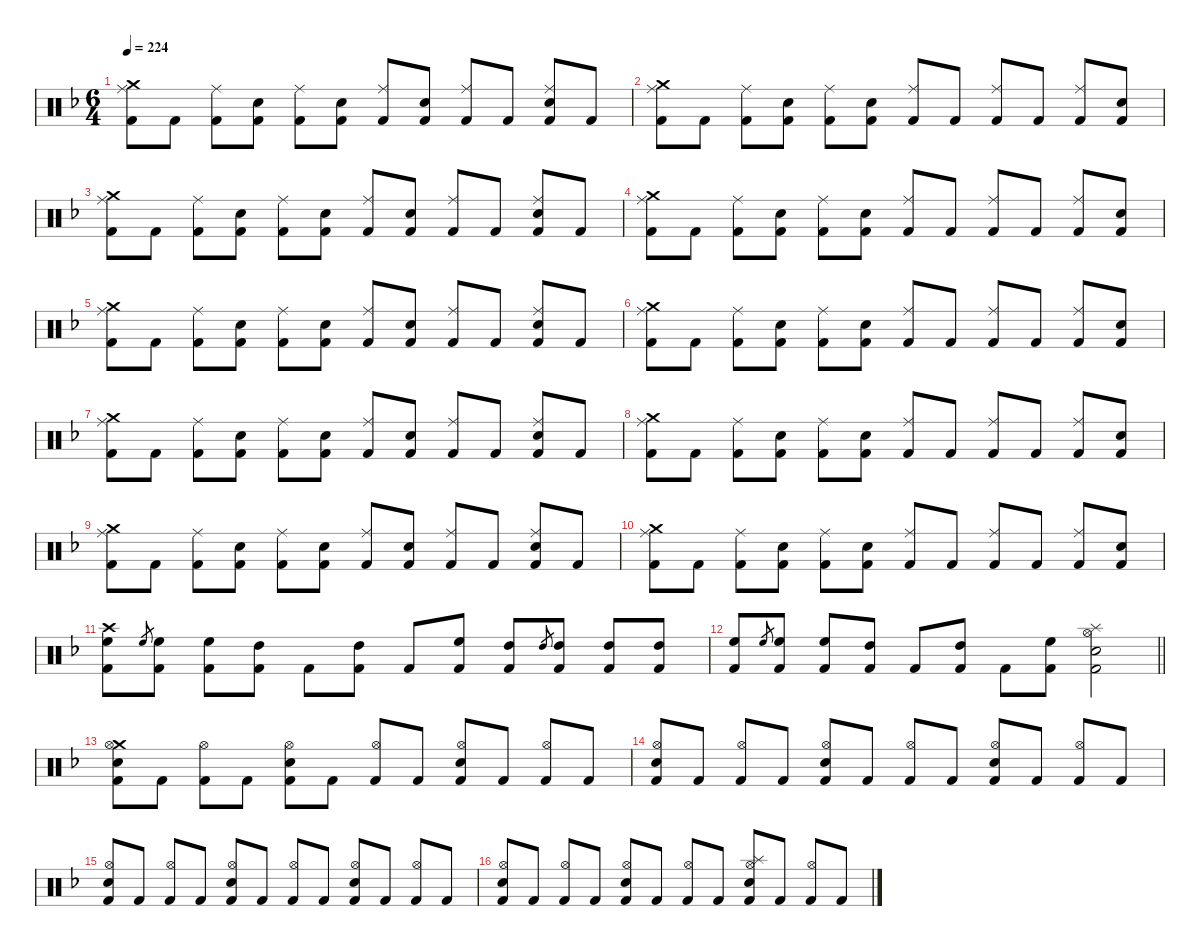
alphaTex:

\hideDynamics
\bracketExtendMode nobrackets
\singleTrackTrackNamePolicy hidden
\multiTrackTrackNamePolicy hidden
\firstSystemTrackNameMode fullname
\firstSystemTrackNameOrientation horizontal
\otherSystemsTrackNameOrientation horizontal
\track ("Drumkit" "Drums") {defaultSystemsLayout 4 instrument percussion}
\staff {score}
\articulation defaults
\ts (6 4)
\tempo 224
\clef neutral
\ks dminor
("Ride (middle)"{acc forcenatural} "Crash medium (hit)"{acc forcenatural} "Kick (hit) 2"{acc forcenatural}).8{dy mf beam Down} "Kick (hit) 2"{acc forcenatural}.8{dy f beam Down} ("Ride (middle)"{acc forcenatural} "Kick (hit) 2"{acc forcenatural}).8{dy mf beam Down} ("Snare (hit) 2"{acc forcenatural} "Kick (hit) 2"{acc forcenatural}).8{dy f beam Down} ("Ride (middle)"{acc forcenatural} "Kick (hit) 2"{acc forcenatural}).8{dy mf beam Down} ("Snare (hit) 2"{acc forcenatural} "Kick (hit) 2"{acc forcenatural}).8{dy f beam Down} ("Ride (middle)"{acc forcenatural} "Kick (hit) 2"{acc forcenatural}).8{dy mf beam Up} ("Snare (hit) 2"{acc forcenatural} "Kick (hit) 2"{acc forcenatural}).8{dy f beam Up} ("Ride (middle)"{acc forcenatural} "Kick (hit) 2"{acc forcenatural}).8{dy mf beam Up} "Kick (hit) 2"{acc forcenatural}.8{dy f beam Up} ("Ride (middle)"{acc forcenatural} "Snare (hit) 2"{acc forcenatural} "Kick (hit) 2"{acc forcenatural}).8{dy mf beam Up} "Kick (hit) 2"{acc forcenatural}.8{dy f beam Up} |
("Ride (middle)"{acc forcenatural} "Crash medium (hit)"{acc forcenatural} "Kick (hit) 2"{acc forcenatural}).8{dy mf beam Down} "Kick (hit) 2"{acc forcenatural}.8{dy f beam Down} ("Ride (middle)"{acc forcenatural} "Kick (hit) 2"{acc forcenatural}).8{dy mf beam Down} ("Snare (hit) 2"{acc forcenatural} "Kick (hit) 2"{acc forcenatural}).8{dy f beam Down} ("Ride (middle)"{acc forcenatural} "Kick (hit) 2"{acc forcenatural}).8{dy mf beam Down} ("Snare (hit) 2"{acc forcenatural} "Kick (hit) 2"{acc forcenatural}).8{dy f beam Down} ("Ride (middle)"{acc forcenatural} "Kick (hit) 2"{acc forcenatural}).8{dy mf beam Up} "Kick (hit) 2"{acc forcenatural}.8{dy f beam Up} ("Ride (middle)"{acc forcenatural} "Kick (hit) 2"{acc forcenatural}).8{dy mf beam Up} "Kick (hit) 2"{acc forcenatural}.8{dy f beam Up} ("Ride (middle)"{acc forcenatural} "Kick (hit) 2"{acc forcenatural}).8{dy mf beam Up} ("Snare (hit) 2"{acc forcenatural} "Kick (hit) 2"{acc forcenatural}).8{dy f beam Up} |
("Ride (middle)"{acc forcenatural} "Crash medium (hit)"{acc forcenatural} "Kick (hit) 2"{acc forcenatural}).8{dy mf beam Down} "Kick (hit) 2"{acc forcenatural}.8{dy f beam Down} ("Ride (middle)"{acc forcenatural} "Kick (hit) 2"{acc forcenatural}).8{dy mf beam Down} ("Snare (hit) 2"{acc forcenatural} "Kick (hit) 2"{acc forcenatural}).8{dy f beam Down} ("Ride (middle)"{acc forcenatural} "Kick (hit) 2"{acc forcenatural}).8{dy mf beam Down} ("Snare (hit) 2"{acc forcenatural} "Kick (hit) 2"{acc forcenatural}).8{dy f beam Down} ("Ride (middle)"{acc forcenatural} "Kick (hit) 2"{acc forcenatural}).8{dy mf beam Up} ("Snare (hit) 2"{acc forcenatural} "Kick (hit) 2"{acc forcenatural}).8{dy f beam Up} ("Ride (middle)"{acc forcenatural} "Kick (hit) 2"{acc forcenatural}).8{dy mf beam Up} "Kick (hit) 2"{acc forcenatural}.8{dy f beam Up} ("Ride (middle)"{acc forcenatural} "Snare (hit) 2"{acc forcenatural} "Kick (hit) 2"{acc forcenatural}).8{dy mf beam Up} "Kick (hit) 2"{acc forcenatural}.8{dy f beam Up} |
("Ride (middle)"{acc forcenatural} "Crash medium (hit)"{acc forcenatural} "Kick (hit) 2"{acc forcenatural}).8{dy mf beam Down} "Kick (hit) 2"{acc forcenatural}.8{dy f beam Down} ("Ride (middle)"{acc forcenatural} "Kick (hit) 2"{acc forcenatural}).8{dy mf beam Down} ("Snare (hit) 2"{acc forcenatural} "Kick (hit) 2"{acc forcenatural}).8{dy f beam Down} ("Ride (middle)"{acc forcenatural} "Kick (hit) 2"{acc forcenatural}).8{dy mf beam Down} ("Snare (hit) 2"{acc forcenatural} "Kick (hit) 2"{acc forcenatural}).8{dy f beam Down} ("Ride (middle)"{acc forcenatural} "Kick (hit) 2"{acc forcenatural}).8{dy mf beam Up} "Kick (hit) 2"{acc forcenatural}.8{dy f beam Up} ("Ride (middle)"{acc forcenatural} "Kick (hit) 2"{acc forcenatural}).8{dy mf beam Up} "Kick (hit) 2"{acc forcenatural}.8{dy f beam Up} ("Ride (middle)"{acc forcenatural} "Kick (hit) 2"{acc forcenatural}).8{dy mf beam Up} ("Snare (hit) 2"{acc forcenatural} "Kick (hit) 2"{acc forcenatural}).8{dy f beam Up} |
("Ride (middle)"{acc forcenatural} "Crash medium (hit)"{acc forcenatural} "Kick (hit) 2"{acc forcenatural}).8{dy mf beam Down} "Kick (hit) 2"{acc forcenatural}.8{dy f beam Down} ("Ride (middle)"{acc forcenatural} "Kick (hit) 2"{acc forcenatural}).8{dy mf beam Down} ("Snare (hit) 2"{acc forcenatural} "Kick (hit) 2"{acc forcenatural}).8{dy f beam Down} ("Ride (middle)"{acc forcenatural} "Kick (hit) 2"{acc forcenatural}).8{dy mf beam Down} ("Snare (hit) 2"{acc forcenatural} "Kick (hit) 2"{acc forcenatural}).8{dy f beam Down} ("Ride (middle)"{acc forcenatural} "Kick (hit) 2"{acc forcenatural}).8{dy mf beam Up} ("Snare (hit) 2"{acc forcenatural} "Kick (hit) 2"{acc forcenatural}).8{dy f beam Up} ("Ride (middle)"{acc forcenatural} "Kick (hit) 2"{acc forcenatural}).8{dy mf beam Up} "Kick (hit) 2"{acc forcenatural}.8{dy f beam Up} ("Ride (middle)"{acc forcenatural} "Snare (hit) 2"{acc forcenatural} "Kick (hit) 2"{acc forcenatural}).8{dy mf beam Up} "Kick (hit) 2"{acc forcenatural}.8{dy f beam Up} |
("Ride (middle)"{acc forcenatural} "Crash medium (hit)"{acc forcenatural} "Kick (hit) 2"{acc forcenatural}).8{dy mf beam Down} "Kick (hit) 2"{acc forcenatural}.8{dy f beam Down} ("Ride (middle)"{acc forcenatural} "Kick (hit) 2"{acc forcenatural}).8{dy mf beam Down} ("Snare (hit) 2"{acc forcenatural} "Kick (hit) 2"{acc forcenatural}).8{dy f beam Down} ("Ride (middle)"{acc forcenatural} "Kick (hit) 2"{acc forcenatural}).8{dy mf beam Down} ("Snare (hit) 2"{acc forcenatural} "Kick (hit) 2"{acc forcenatural}).8{dy f beam Down} ("Ride (middle)"{acc forcenatural} "Kick (hit) 2"{acc forcenatural}).8{dy mf beam Up} "Kick (hit) 2"{acc forcenatural}.8{dy f beam Up} ("Ride (middle)"{acc forcenatural} "Kick (hit) 2"{acc forcenatural}).8{dy mf beam Up} "Kick (hit) 2"{acc forcenatural}.8{dy f beam Up} ("Ride (middle)"{acc forcenatural} "Kick (hit) 2"{acc forcenatural}).8{dy mf beam Up} ("Snare (hit) 2"{acc forcenatural} "Kick (hit) 2"{acc forcenatural}).8{dy f beam Up} |
("Ride (middle)"{acc forcenatural} "Crash medium (hit)"{acc forcenatural} "Kick (hit) 2"{acc forcenatural}).8{dy mf beam Down} "Kick (hit) 2"{acc forcenatural}.8{dy f beam Down} ("Ride (middle)"{acc forcenatural} "Kick (hit) 2"{acc forcenatural}).8{dy mf beam Down} ("Snare (hit) 2"{acc forcenatural} "Kick (hit) 2"{acc forcenatural}).8{dy f beam Down} ("Ride (middle)"{acc forcenatural} "Kick (hit) 2"{acc forcenatural}).8{dy mf beam Down} ("Snare (hit) 2"{acc forcenatural} "Kick (hit) 2"{acc forcenatural}).8{dy f beam Down} ("Ride (middle)"{acc forcenatural} "Kick (hit) 2"{acc forcenatural}).8{dy mf beam Up} ("Snare (hit) 2"{acc forcenatural} "Kick (hit) 2"{acc forcenatural}).8{dy f beam Up} ("Ride (middle)"{acc forcenatural} "Kick (hit) 2"{acc forcenatural}).8{dy mf beam Up} "Kick (hit) 2"{acc forcenatural}.8{dy f beam Up} ("Ride (middle)"{acc forcenatural} "Snare (hit) 2"{acc forcenatural} "Kick (hit) 2"{acc forcenatural}).8{dy mf beam Up} "Kick (hit) 2"{acc forcenatural}.8{dy f beam Up} |
("Ride (middle)"{acc forcenatural} "Crash medium (hit)"{acc forcenatural} "Kick (hit) 2"{acc forcenatural}).8{dy mf beam Down} "Kick (hit) 2"{acc forcenatural}.8{dy f beam Down} ("Ride (middle)"{acc forcenatural} "Kick (hit) 2"{acc forcenatural}).8{dy mf beam Down} ("Snare (hit) 2"{acc forcenatural} "Kick (hit) 2"{acc forcenatural}).8{dy f beam Down} ("Ride (middle)"{acc forcenatural} "Kick (hit) 2"{acc forcenatural}).8{dy mf beam Down} ("Snare (hit) 2"{acc forcenatural} "Kick (hit) 2"{acc forcenatural}).8{dy f beam Down} ("Ride (middle)"{acc forcenatural} "Kick (hit) 2"{acc forcenatural}).8{dy mf beam Up} "Kick (hit) 2"{acc forcenatural}.8{dy f beam Up} ("Ride (middle)"{acc forcenatural} "Kick (hit) 2"{acc forcenatural}).8{dy mf beam Up} "Kick (hit) 2"{acc forcenatural}.8{dy f beam Up} ("Ride (middle)"{acc forcenatural} "Kick (hit) 2"{acc forcenatural}).8{dy mf beam Up} ("Snare (hit) 2"{acc forcenatural} "Kick (hit) 2"{acc forcenatural}).8{dy f beam Up} |
("Ride (middle)"{acc forcenatural} "Crash medium (hit)"{acc forcenatural} "Kick (hit) 2"{acc forcenatural}).8{dy mf beam Down} "Kick (hit) 2"{acc forcenatural}.8{dy f beam Down} ("Ride (middle)"{acc forcenatural} "Kick (hit) 2"{acc forcenatural}).8{dy mf beam Down} ("Snare (hit) 2"{acc forcenatural} "Kick (hit) 2"{acc forcenatural}).8{dy f beam Down} ("Ride (middle)"{acc forcenatural} "Kick (hit) 2"{acc forcenatural}).8{dy mf beam Down} ("Snare (hit) 2"{acc forcenatural} "Kick (hit) 2"{acc forcenatural}).8{dy f beam Down} ("Ride (middle)"{acc forcenatural} "Kick (hit) 2"{acc forcenatural}).8{dy mf beam Up} ("Snare (hit) 2"{acc forcenatural} "Kick (hit) 2"{acc forcenatural}).8{dy f beam Up} ("Ride (middle)"{acc forcenatural} "Kick (hit) 2"{acc forcenatural}).8{dy mf beam Up} "Kick (hit) 2"{acc forcenatural}.8{dy f beam Up} ("Ride (middle)"{acc forcenatural} "Snare (hit) 2"{acc forcenatural} "Kick (hit) 2"{acc forcenatural}).8{dy mf beam Up} "Kick (hit) 2"{acc forcenatural}.8{dy f beam Up} |
("Ride (middle)"{acc forcenatural} "Crash medium (hit)"{acc forcenatural} "Kick (hit) 2"{acc forcenatural}).8{dy mf beam Down} "Kick (hit) 2"{acc forcenatural}.8{dy f beam Down} ("Ride (middle)"{acc forcenatural} "Kick (hit) 2"{acc forcenatural}).8{dy mf beam Down} ("Snare (hit) 2"{acc forcenatural} "Kick (hit) 2"{acc forcenatural}).8{dy f beam Down} ("Ride (middle)"{acc forcenatural} "Kick (hit) 2"{acc forcenatural}).8{dy mf beam Down} ("Snare (hit) 2"{acc forcenatural} "Kick (hit) 2"{acc forcenatural}).8{dy f beam Down} ("Ride (middle)"{acc forcenatural} "Kick (hit) 2"{acc forcenatural}).8{dy mf beam Up} "Kick (hit) 2"{acc forcenatural}.8{dy f beam Up} ("Ride (middle)"{acc forcenatural} "Kick (hit) 2"{acc forcenatural}).8{dy mf beam Up} "Kick (hit) 2"{acc forcenatural}.8{dy f beam Up} ("Ride (middle)"{acc forcenatural} "Kick (hit) 2"{acc forcenatural}).8{dy mf beam Up} ("Snare (hit) 2"{acc forcenatural} "Kick (hit) 2"{acc forcenatural}).8{dy f beam Up} |
("Crash high (hit)"{acc forcenatural} "High Floor Tom (hit)"{acc forcenatural} "Kick (hit) 2"{acc forcenatural}).8{beam Down} "High Floor Tom (hit)"{acc forcenatural}.8{gr dy mf beam Up} ("High Floor Tom (hit)"{acc forcenatural} "Kick (hit) 2"{acc forcenatural}).8{dy f beam Down} ("High Floor Tom (hit)"{acc forcenatural} "Kick (hit) 2"{acc forcenatural}).8{beam Down} ("High Tom (hit)"{acc forcenatural} "Kick (hit) 2"{acc forcenatural}).8{beam Down} "Kick (hit) 2"{acc forcenatural}.8{beam Down} ("High Tom (hit)"{acc forcenatural} "Kick (hit) 2"{acc forcenatural}).8{beam Down} "Kick (hit) 2"{acc forcenatural}.8{beam Up} ("High Floor Tom (hit)"{acc forcenatural} "Kick (hit) 2"{acc forcenatural}).8{beam Up} ("High Tom (hit)"{acc forcenatural} "Kick (hit) 2"{acc forcenatural}).8{beam Up} "High Tom (hit)"{acc forcenatural}.8{gr dy mf beam Up} ("High Tom (hit)"{acc forcenatural} "Kick (hit) 2"{acc forcenatural}).8{dy f beam Up} ("High Tom (hit)"{acc forcenatural} "Kick (hit) 2"{acc forcenatural}).8{beam Up} ("High Tom (hit)"{acc forcenatural} "Kick (hit) 2"{acc forcenatural}).8{dy mf beam Up} |
\barLineRight lightlight
("High Floor Tom (hit)"{acc forcenatural} "Kick (hit) 2"{acc forcenatural}).8{dy f beam Up} "High Floor Tom (hit)"{acc forcenatural}.8{gr dy mf beam Up} ("High Floor Tom (hit)"{acc forcenatural} "Kick (hit) 2"{acc forcenatural}).8{dy f beam Up} ("High Floor Tom (hit)"{acc forcenatural} "Kick (hit) 2"{acc forcenatural}).8{beam Up} ("High Tom (hit)"{acc forcenatural} "Kick (hit) 2"{acc forcenatural}).8{beam Up} "Kick (hit) 2"{acc forcenatural}.8{beam Up} ("High Tom (hit)"{acc forcenatural} "Kick (hit) 2"{acc forcenatural}).8{beam Up} "Kick (hit) 2"{acc forcenatural}.8{beam Down} ("High Floor Tom (hit)"{acc forcenatural} "Kick (hit) 2"{acc forcenatural}).8{beam Down} ("Splash (hit)"{acc forcenatural} "Hi-Hat (open)"{acc forcenatural} "Snare (hit) 2"{acc forcenatural} "Kick (hit) 2"{acc forcenatural}).2{beam Down} |
("Crash medium (hit)"{acc forcenatural} "Hi-Hat (open)"{acc forcenatural} "Snare (hit) 2"{acc forcenatural} "Kick (hit) 2"{acc forcenatural}).8{beam Down} "Kick (hit) 2"{acc forcenatural}.8{beam Down} ("Hi-Hat (open)"{acc forcenatural} "Kick (hit) 2"{acc forcenatural}).8{beam Down} "Kick (hit) 2"{acc forcenatural}.8{beam Down} ("Hi-Hat (open)"{acc forcenatural} "Snare (hit) 2"{acc forcenatural} "Kick (hit) 2"{acc forcenatural}).8{beam Down} "Kick (hit) 2"{acc forcenatural}.8{beam Down} ("Hi-Hat (open)"{acc forcenatural} "Kick (hit) 2"{acc forcenatural}).8{beam Up} "Kick (hit) 2"{acc forcenatural}.8{beam Up} ("Hi-Hat (open)"{acc forcenatural} "Snare (hit) 2"{acc forcenatural} "Kick (hit) 2"{acc forcenatural}).8{beam Up} "Kick (hit) 2"{acc forcenatural}.8{beam Up} ("Hi-Hat (open)"{acc forcenatural} "Kick (hit) 2"{acc forcenatural}).8{beam Up} "Kick (hit) 2"{acc forcenatural}.8{beam Up} |
("Hi-Hat (open)"{acc forcenatural} "Snare (hit) 2"{acc forcenatural} "Kick (hit) 2"{acc forcenatural}).8{beam Up} "Kick (hit) 2"{acc forcenatural}.8{beam Up} ("Hi-Hat (open)"{acc forcenatural} "Kick (hit) 2"{acc forcenatural}).8{beam Up} "Kick (hit) 2"{acc forcenatural}.8{beam Up} ("Hi-Hat (open)"{acc forcenatural} "Snare (hit) 2"{acc forcenatural} "Kick (hit) 2"{acc forcenatural}).8{beam Up} "Kick (hit) 2"{acc forcenatural}.8{beam Up} ("Hi-Hat (open)"{acc forcenatural} "Kick (hit) 2"{acc forcenatural}).8{beam Up} "Kick (hit) 2"{acc forcenatural}.8{beam Up} ("Hi-Hat (open)"{acc forcenatural} "Snare (hit) 2"{acc forcenatural} "Kick (hit) 2"{acc forcenatural}).8{beam Up} "Kick (hit) 2"{acc forcenatural}.8{beam Up} ("Hi-Hat (open)"{acc forcenatural} "Kick (hit) 2"{acc forcenatural}).8{beam Up} "Kick (hit) 2"{acc forcenatural}.8{beam Up} |
("Hi-Hat (open)"{acc forcenatural} "Snare (hit) 2"{acc forcenatural} "Kick (hit) 2"{acc forcenatural}).8{beam Up} "Kick (hit) 2"{acc forcenatural}.8{beam Up} ("Hi-Hat (open)"{acc forcenatural} "Kick (hit) 2"{acc forcenatural}).8{beam Up} "Kick (hit) 2"{acc forcenatural}.8{beam Up} ("Hi-Hat (open)"{acc forcenatural} "Snare (hit) 2"{acc forcenatural} "Kick (hit) 2"{acc forcenatural}).8{beam Up} "Kick (hit) 2"{acc forcenatural}.8{beam Up} ("Hi-Hat (open)"{acc forcenatural} "Kick (hit) 2"{acc forcenatural}).8{beam Up} "Kick (hit) 2"{acc forcenatural}.8{beam Up} ("Hi-Hat (open)"{acc forcenatural} "Snare (hit) 2"{acc forcenatural} "Kick (hit) 2"{acc forcenatural}).8{beam Up} "Kick (hit) 2"{acc forcenatural}.8{beam Up} ("Hi-Hat (open)"{acc forcenatural} "Kick (hit) 2"{acc forcenatural}).8{beam Up} "Kick (hit) 2"{acc forcenatural}.8{beam Up} |
("Hi-Hat (open)"{acc forcenatural} "Snare (hit) 2"{acc forcenatural} "Kick (hit) 2"{acc forcenatural}).8{beam Up} "Kick (hit) 2"{acc forcenatural}.8{beam Up} ("Hi-Hat (open)"{acc forcenatural} "Kick (hit) 2"{acc forcenatural}).8{beam Up} "Kick (hit) 2"{acc forcenatural}.8{beam Up} ("Hi-Hat (open)"{acc forcenatural} "Snare (hit) 2"{acc forcenatural} "Kick (hit) 2"{acc forcenatural}).8{beam Up} "Kick (hit) 2"{acc forcenatural}.8{beam Up} ("Hi-Hat (open)"{acc forcenatural} "Kick (hit) 2"{acc forcenatural}).8{beam Up} "Kick (hit) 2"{acc forcenatural}.8{beam Up} ("Splash (hit)"{acc forcenatural} "Hi-Hat (open)"{acc forcenatural} "Snare (hit) 2"{acc forcenatural} "Kick (hit) 2"{acc forcenatural}).8{beam Up} "Kick (hit) 2"{acc forcenatural}.8{beam Up} ("Hi-Hat (open)"{acc forcenatural} "Kick (hit) 2"{acc forcenatural}).8{beam Up} "Kick (hit) 2"{acc forcenatural}.8{beam Up}
